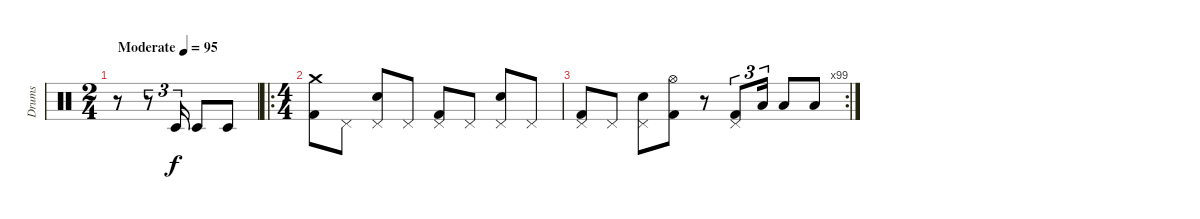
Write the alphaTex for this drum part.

\track ("Drums" "Drums") {instrument percussion}
\staff {score}
\articulation defaults
\ts (2 4)
\tempo (95 "Moderate")
\clef neutral
\ks c
r.8{dy f} r.8{tu (3 2)} "Timbale low (hit)".16{tu (3 2)} "Timbale low (hit)".8 "Timbale low (hit)".8 |
\ro
\ts (4 4)
("Crash medium (hit)" "Kick (hit) 2").8 "Pedal Hi-Hat (hit)".8 ("Pedal Hi-Hat (hit)" "Snare (hit) 2").8 "Pedal Hi-Hat (hit)".8 ("Pedal Hi-Hat (hit)" "Kick (hit) 2").8 "Pedal Hi-Hat (hit)".8 ("Pedal Hi-Hat (hit)" "Snare (hit) 2").8 "Pedal Hi-Hat (hit)".8 |
\rc 99
("Pedal Hi-Hat (hit)" "Kick (hit) 2").8 "Pedal Hi-Hat (hit)".8 ("Pedal Hi-Hat (hit)" "Snare (hit) 2").8 ("Hi-Hat (open)" "Kick (hit) 2").8 r.8 ("Pedal Hi-Hat (hit)" "Kick (hit) 2").8{tu (3 2)} "Low Tom (hit)".16{tu (3 2)} "Low Tom (hit)".8 "Low Tom (hit)".8
